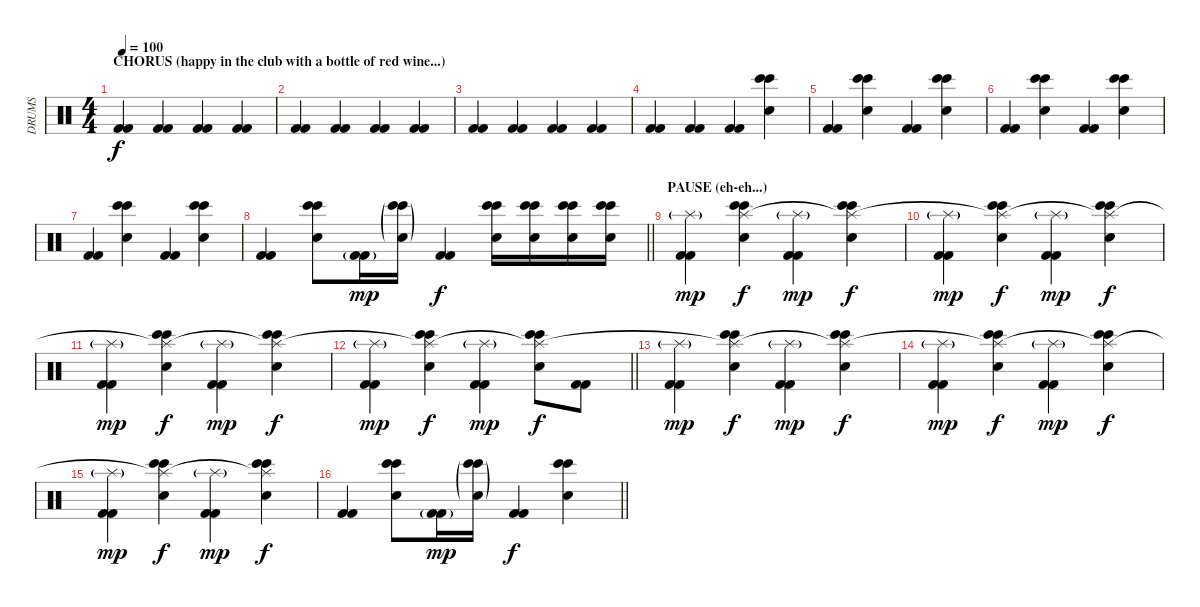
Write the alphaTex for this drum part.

\track ("DRUMS" "DRUMS") {instrument percussion}
\staff {score}
\articulation defaults
\ts (4 4)
\section ("" "CHORUS (happy in the club with a bottle of red wine...)")
\tempo 100
\clef neutral
\ks c
("Kick (hit) 2" "Kick (hit) 2").4{dy f} ("Kick (hit) 2" "Kick (hit) 2").4 ("Kick (hit) 2" "Kick (hit) 2").4 ("Kick (hit) 2" "Kick (hit) 2").4 |
("Kick (hit) 2" "Kick (hit) 2").4 ("Kick (hit) 2" "Kick (hit) 2").4 ("Kick (hit) 2" "Kick (hit) 2").4 ("Kick (hit) 2" "Kick (hit) 2").4 |
("Kick (hit) 2" "Kick (hit) 2").4 ("Kick (hit) 2" "Kick (hit) 2").4 ("Kick (hit) 2" "Kick (hit) 2").4 ("Kick (hit) 2" "Kick (hit) 2").4 |
("Kick (hit) 2" "Kick (hit) 2").4 ("Kick (hit) 2" "Kick (hit) 2").4 ("Kick (hit) 2" "Kick (hit) 2").4 ("Bongo High (hit)" "Bongo High (hit)" "Snare (hit) 2").4 |
("Kick (hit) 2" "Kick (hit) 2").4 ("Bongo High (hit)" "Bongo High (hit)" "Snare (hit) 2").4 ("Kick (hit) 2" "Kick (hit) 2").4 ("Bongo High (hit)" "Bongo High (hit)" "Snare (hit) 2").4 |
("Kick (hit) 2" "Kick (hit) 2").4 ("Bongo High (hit)" "Bongo High (hit)" "Snare (hit) 2").4 ("Kick (hit) 2" "Kick (hit) 2").4 ("Bongo High (hit)" "Bongo High (hit)" "Snare (hit) 2").4 |
("Kick (hit) 2" "Kick (hit) 2").4 ("Bongo High (hit)" "Bongo High (hit)" "Snare (hit) 2").4 ("Kick (hit) 2" "Kick (hit) 2").4 ("Bongo High (hit)" "Bongo High (hit)" "Snare (hit) 2").4 |
\barLineRight lightlight
("Kick (hit) 2" "Kick (hit) 2").4 ("Bongo High (hit)" "Bongo High (hit)" "Snare (hit) 2").8 ("Kick (hit) 2"{g} "Kick (hit) 2"{g}).16{dy mp} ("Bongo High (hit)"{g} "Bongo High (hit)"{g} "Snare (hit) 2"{g}).16 ("Kick (hit) 2" "Kick (hit) 2").4{dy f} ("Bongo High (hit)" "Bongo High (hit)" "Snare (hit) 2").16 ("Bongo High (hit)" "Bongo High (hit)" "Snare (hit) 2").16 ("Bongo High (hit)" "Bongo High (hit)" "Snare (hit) 2").16 ("Bongo High (hit)" "Bongo High (hit)" "Snare (hit) 2").16 |
\section ("" "PAUSE (eh-eh...)")
("Kick (hit) 2" "Kick (hit) 2" "Splash (hit)"{g}).4{dy mp} ("Bongo High (hit)" "Bongo High (hit)" "Snare (hit) 2" "Splash (hit)").4{dy f} ("Kick (hit) 2" "Kick (hit) 2" "Splash (hit)"{g}).4{dy mp} ("Bongo High (hit)" "Bongo High (hit)" "Snare (hit) 2" "Splash (hit)"{t}).4{dy f} |
("Kick (hit) 2" "Kick (hit) 2" "Splash (hit)"{g}).4{dy mp} ("Bongo High (hit)" "Bongo High (hit)" "Snare (hit) 2" "Splash (hit)"{t}).4{dy f} ("Kick (hit) 2" "Kick (hit) 2" "Splash (hit)"{g}).4{dy mp} ("Bongo High (hit)" "Bongo High (hit)" "Snare (hit) 2" "Splash (hit)"{t}).4{dy f} |
("Kick (hit) 2" "Kick (hit) 2" "Splash (hit)"{g}).4{dy mp} ("Bongo High (hit)" "Bongo High (hit)" "Snare (hit) 2" "Splash (hit)"{t}).4{dy f} ("Kick (hit) 2" "Kick (hit) 2" "Splash (hit)"{g}).4{dy mp} ("Bongo High (hit)" "Bongo High (hit)" "Snare (hit) 2" "Splash (hit)"{t}).4{dy f} |
\barLineRight lightlight
("Kick (hit) 2" "Kick (hit) 2" "Splash (hit)"{g}).4{dy mp} ("Bongo High (hit)" "Bongo High (hit)" "Snare (hit) 2" "Splash (hit)"{t}).4{dy f} ("Kick (hit) 2" "Kick (hit) 2" "Splash (hit)"{g}).4{dy mp} ("Bongo High (hit)" "Bongo High (hit)" "Snare (hit) 2" "Splash (hit)"{t}).8{dy f} ("Kick (hit) 2" "Kick (hit) 2").8 |
("Kick (hit) 2" "Kick (hit) 2" "Splash (hit)"{g}).4{dy mp} ("Bongo High (hit)" "Bongo High (hit)" "Snare (hit) 2" "Splash (hit)"{t}).4{dy f} ("Kick (hit) 2" "Kick (hit) 2" "Splash (hit)"{g}).4{dy mp} ("Bongo High (hit)" "Bongo High (hit)" "Snare (hit) 2" "Splash (hit)"{t}).4{dy f} |
("Kick (hit) 2" "Kick (hit) 2" "Splash (hit)"{g}).4{dy mp} ("Bongo High (hit)" "Bongo High (hit)" "Snare (hit) 2" "Splash (hit)"{t}).4{dy f} ("Kick (hit) 2" "Kick (hit) 2" "Splash (hit)"{g}).4{dy mp} ("Bongo High (hit)" "Bongo High (hit)" "Snare (hit) 2" "Splash (hit)"{t}).4{dy f} |
("Kick (hit) 2" "Kick (hit) 2" "Splash (hit)"{g}).4{dy mp} ("Bongo High (hit)" "Bongo High (hit)" "Snare (hit) 2" "Splash (hit)"{t}).4{dy f} ("Kick (hit) 2" "Kick (hit) 2" "Splash (hit)"{g}).4{dy mp} ("Bongo High (hit)" "Bongo High (hit)" "Snare (hit) 2" "Splash (hit)"{t}).4{dy f} |
\barLineRight lightlight
("Kick (hit) 2" "Kick (hit) 2").4 ("Bongo High (hit)" "Bongo High (hit)" "Snare (hit) 2").8 ("Kick (hit) 2"{g} "Kick (hit) 2"{g}).16{dy mp} ("Bongo High (hit)"{g} "Bongo High (hit)"{g} "Snare (hit) 2"{g}).16 ("Kick (hit) 2" "Kick (hit) 2").4{dy f} ("Bongo High (hit)" "Bongo High (hit)" "Snare (hit) 2").4
